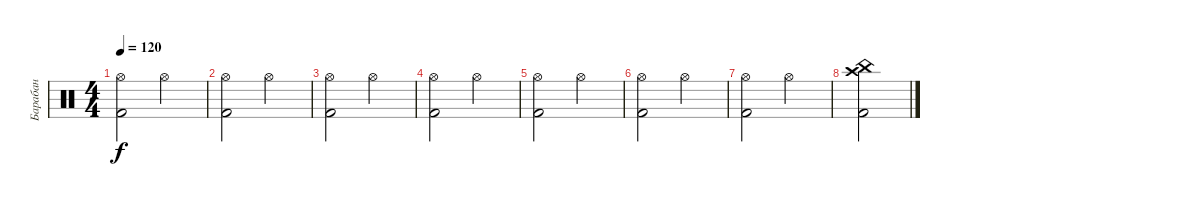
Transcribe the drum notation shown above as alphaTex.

\track ("Барабан" "Барабан") {instrument percussion}
\staff {score}
\articulation defaults
\ts (4 4)
\tempo 120
\clef neutral
\ks c
("Hi-Hat (open)" "Kick (hit) 2").2{dy f} "Hi-Hat (open)".2 |
("Hi-Hat (open)" "Kick (hit) 2").2 "Hi-Hat (open)".2 |
("Hi-Hat (open)" "Kick (hit) 2").2 "Hi-Hat (open)".2 |
("Hi-Hat (open)" "Kick (hit) 2").2 "Hi-Hat (open)".2 |
("Hi-Hat (open)" "Kick (hit) 2").2 "Hi-Hat (open)".2 |
("Hi-Hat (open)" "Kick (hit) 2").2 "Hi-Hat (open)".2 |
("Hi-Hat (open)" "Kick (hit) 2").2 "Hi-Hat (open)".2 |
("Crash high (hit)" "China (hit)" "Kick (hit) 2").2
